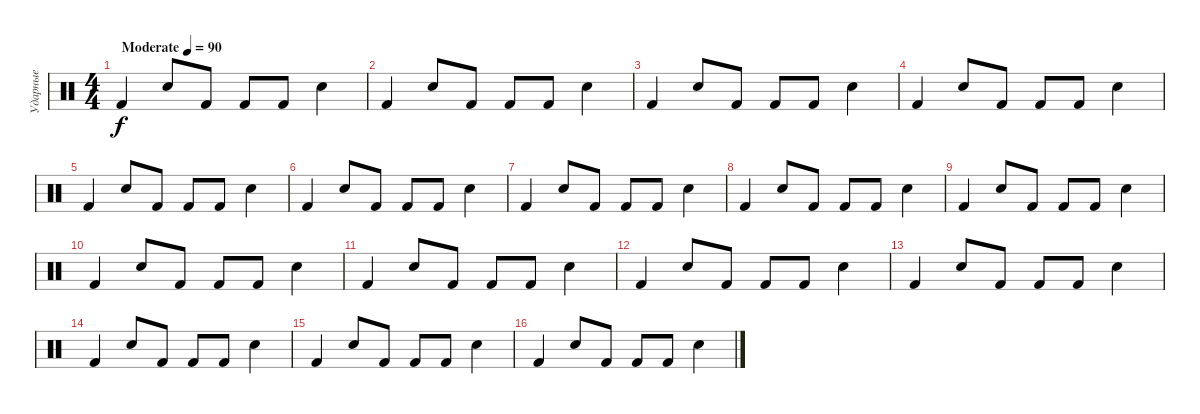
\track ("Ударные" "Ударные") {instrument percussion}
\staff {score}
\articulation defaults
\ts (4 4)
\tempo (90 "Moderate")
\clef neutral
\ks c "Kick (hit) 2".4{dy f} "Electric Snare (hit)".8 "Kick (hit) 2".8 "Kick (hit) 2".8 "Kick (hit) 2".8 "Electric Snare (hit)".4
|
"Kick (hit) 2".4 "Electric Snare (hit)".8 "Kick (hit) 2".8 "Kick (hit) 2".8 "Kick (hit) 2".8 "Electric Snare (hit)".4 |
"Kick (hit) 2".4 "Electric Snare (hit)".8 "Kick (hit) 2".8 "Kick (hit) 2".8 "Kick (hit) 2".8 "Electric Snare (hit)".4 |
"Kick (hit) 2".4 "Electric Snare (hit)".8 "Kick (hit) 2".8 "Kick (hit) 2".8 "Kick (hit) 2".8 "Electric Snare (hit)".4 |
"Kick (hit) 2".4 "Electric Snare (hit)".8 "Kick (hit) 2".8 "Kick (hit) 2".8 "Kick (hit) 2".8 "Electric Snare (hit)".4 |
"Kick (hit) 2".4 "Electric Snare (hit)".8 "Kick (hit) 2".8 "Kick (hit) 2".8 "Kick (hit) 2".8 "Electric Snare (hit)".4 |
"Kick (hit) 2".4 "Electric Snare (hit)".8 "Kick (hit) 2".8 "Kick (hit) 2".8 "Kick (hit) 2".8 "Electric Snare (hit)".4 |
"Kick (hit) 2".4 "Electric Snare (hit)".8 "Kick (hit) 2".8 "Kick (hit) 2".8 "Kick (hit) 2".8 "Electric Snare (hit)".4 |
"Kick (hit) 2".4 "Electric Snare (hit)".8 "Kick (hit) 2".8 "Kick (hit) 2".8 "Kick (hit) 2".8 "Electric Snare (hit)".4 |
"Kick (hit) 2".4 "Electric Snare (hit)".8 "Kick (hit) 2".8 "Kick (hit) 2".8 "Kick (hit) 2".8 "Electric Snare (hit)".4 |
"Kick (hit) 2".4 "Electric Snare (hit)".8 "Kick (hit) 2".8 "Kick (hit) 2".8 "Kick (hit) 2".8 "Electric Snare (hit)".4 |
"Kick (hit) 2".4 "Electric Snare (hit)".8 "Kick (hit) 2".8 "Kick (hit) 2".8 "Kick (hit) 2".8 "Electric Snare (hit)".4 |
"Kick (hit) 2".4 "Electric Snare (hit)".8 "Kick (hit) 2".8 "Kick (hit) 2".8 "Kick (hit) 2".8 "Electric Snare (hit)".4 |
"Kick (hit) 2".4 "Electric Snare (hit)".8 "Kick (hit) 2".8 "Kick (hit) 2".8 "Kick (hit) 2".8 "Electric Snare (hit)".4 |
"Kick (hit) 2".4 "Electric Snare (hit)".8 "Kick (hit) 2".8 "Kick (hit) 2".8 "Kick (hit) 2".8 "Electric Snare (hit)".4 |
"Kick (hit) 2".4 "Electric Snare (hit)".8 "Kick (hit) 2".8 "Kick (hit) 2".8 "Kick (hit) 2".8 "Electric Snare (hit)".4
